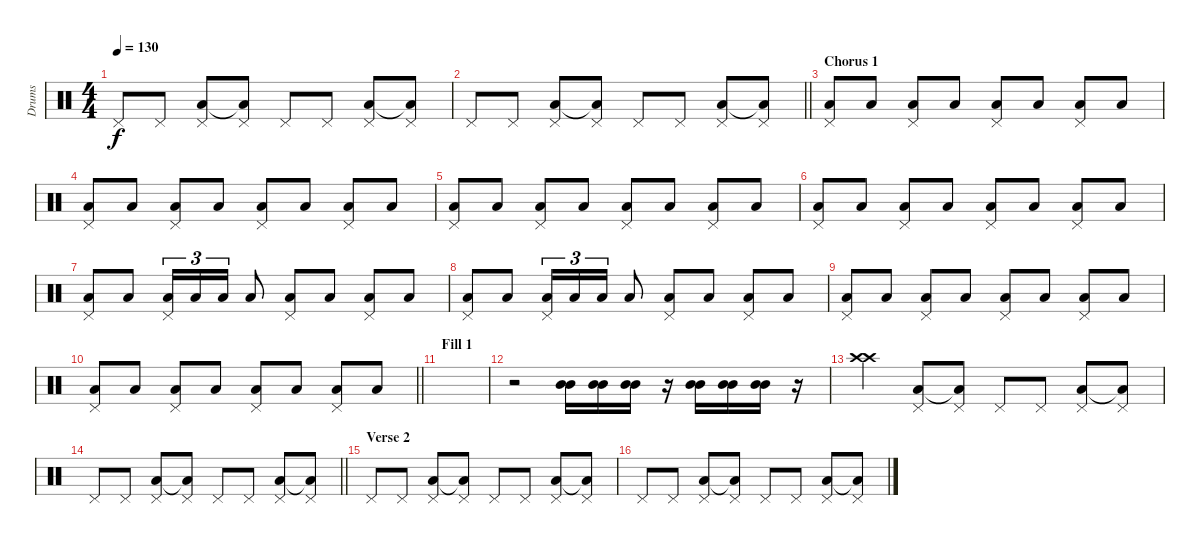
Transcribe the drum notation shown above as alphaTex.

\track ("Drums" "Drums") {instrument percussion}
\staff {score}
\articulation defaults
\ts (4 4)
\tempo 130
\clef neutral
\ks c "Pedal Hi-Hat (hit)".8{dy f} "Pedal Hi-Hat (hit)".8
("Pedal Hi-Hat (hit)" "Low Floor Tom (hit)").8 ("Pedal Hi-Hat (hit)" "Low Floor Tom (hit)"{t}).8 "Pedal Hi-Hat (hit)".8 "Pedal Hi-Hat (hit)".8 ("Pedal Hi-Hat (hit)" "Low Floor Tom (hit)").8 ("Pedal Hi-Hat (hit)" "Low Floor Tom (hit)"{t}).8 |
\barLineRight lightlight "Pedal Hi-Hat (hit)".8 "Pedal Hi-Hat (hit)".8
("Pedal Hi-Hat (hit)" "Low Floor Tom (hit)").8 ("Pedal Hi-Hat (hit)" "Low Floor Tom (hit)"{t}).8 "Pedal Hi-Hat (hit)".8 "Pedal Hi-Hat (hit)".8 ("Pedal Hi-Hat (hit)" "Low Floor Tom (hit)").8 ("Pedal Hi-Hat (hit)" "Low Floor Tom (hit)"{t}).8 |
\section ("" "Chorus 1")
("Pedal Hi-Hat (hit)" "Low Floor Tom (hit)").8 "Low Floor Tom (hit)".8 ("Pedal Hi-Hat (hit)" "Low Floor Tom (hit)").8 "Low Floor Tom (hit)".8 ("Pedal Hi-Hat (hit)" "Low Floor Tom (hit)").8 "Low Floor Tom (hit)".8 ("Pedal Hi-Hat (hit)" "Low Floor Tom (hit)").8 "Low Floor Tom (hit)".8 |
("Pedal Hi-Hat (hit)" "Low Floor Tom (hit)").8 "Low Floor Tom (hit)".8 ("Pedal Hi-Hat (hit)" "Low Floor Tom (hit)").8 "Low Floor Tom (hit)".8 ("Pedal Hi-Hat (hit)" "Low Floor Tom (hit)").8 "Low Floor Tom (hit)".8 ("Pedal Hi-Hat (hit)" "Low Floor Tom (hit)").8 "Low Floor Tom (hit)".8 |
("Pedal Hi-Hat (hit)" "Low Floor Tom (hit)").8 "Low Floor Tom (hit)".8 ("Pedal Hi-Hat (hit)" "Low Floor Tom (hit)").8 "Low Floor Tom (hit)".8 ("Pedal Hi-Hat (hit)" "Low Floor Tom (hit)").8 "Low Floor Tom (hit)".8 ("Pedal Hi-Hat (hit)" "Low Floor Tom (hit)").8 "Low Floor Tom (hit)".8 |
("Pedal Hi-Hat (hit)" "Low Floor Tom (hit)").8 "Low Floor Tom (hit)".8 ("Pedal Hi-Hat (hit)" "Low Floor Tom (hit)").8 "Low Floor Tom (hit)".8 ("Pedal Hi-Hat (hit)" "Low Floor Tom (hit)").8 "Low Floor Tom (hit)".8 ("Pedal Hi-Hat (hit)" "Low Floor Tom (hit)").8 "Low Floor Tom (hit)".8 |
("Pedal Hi-Hat (hit)" "Low Floor Tom (hit)").8 "Low Floor Tom (hit)".8 ("Pedal Hi-Hat (hit)" "Low Floor Tom (hit)").16{tu (3 2)} "Low Floor Tom (hit)".16{tu (3 2)} "Low Floor Tom (hit)".16{tu (3 2)} "Low Floor Tom (hit)".8 ("Pedal Hi-Hat (hit)" "Low Floor Tom (hit)").8 "Low Floor Tom (hit)".8 ("Pedal Hi-Hat (hit)" "Low Floor Tom (hit)").8 "Low Floor Tom (hit)".8 |
("Pedal Hi-Hat (hit)" "Low Floor Tom (hit)").8 "Low Floor Tom (hit)".8 ("Pedal Hi-Hat (hit)" "Low Floor Tom (hit)").16{tu (3 2)} "Low Floor Tom (hit)".16{tu (3 2)} "Low Floor Tom (hit)".16{tu (3 2)} "Low Floor Tom (hit)".8 ("Pedal Hi-Hat (hit)" "Low Floor Tom (hit)").8 "Low Floor Tom (hit)".8 ("Pedal Hi-Hat (hit)" "Low Floor Tom (hit)").8 "Low Floor Tom (hit)".8 |
("Pedal Hi-Hat (hit)" "Low Floor Tom (hit)").8 "Low Floor Tom (hit)".8 ("Pedal Hi-Hat (hit)" "Low Floor Tom (hit)").8 "Low Floor Tom (hit)".8 ("Pedal Hi-Hat (hit)" "Low Floor Tom (hit)").8 "Low Floor Tom (hit)".8 ("Pedal Hi-Hat (hit)" "Low Floor Tom (hit)").8 "Low Floor Tom (hit)".8 |
\barLineRight lightlight
("Pedal Hi-Hat (hit)" "Low Floor Tom (hit)").8 "Low Floor Tom (hit)".8 ("Pedal Hi-Hat (hit)" "Low Floor Tom (hit)").8 "Low Floor Tom (hit)".8 ("Pedal Hi-Hat (hit)" "Low Floor Tom (hit)").8 "Low Floor Tom (hit)".8 ("Pedal Hi-Hat (hit)" "Low Floor Tom (hit)").8 "Low Floor Tom (hit)".8 |
\section ("" "Fill 1")
|
r.2 ("Mid Tom (hit)" "Mid Tom (hit)").16 ("Mid Tom (hit)" "Mid Tom (hit)").16 ("Mid Tom (hit)" "Mid Tom (hit)").16 r.16 ("Mid Tom (hit)" "Mid Tom (hit)").16 ("Mid Tom (hit)" "Mid Tom (hit)").16 ("Mid Tom (hit)" "Mid Tom (hit)").16 r.16 |
("Crash high (hit)" "Crash high (hit)").4 ("Pedal Hi-Hat (hit)" "Low Floor Tom (hit)").8 ("Pedal Hi-Hat (hit)" "Low Floor Tom (hit)"{t}).8 "Pedal Hi-Hat (hit)".8 "Pedal Hi-Hat (hit)".8 ("Pedal Hi-Hat (hit)" "Low Floor Tom (hit)").8 ("Pedal Hi-Hat (hit)" "Low Floor Tom (hit)"{t}).8 |
\barLineRight lightlight "Pedal Hi-Hat (hit)".8 "Pedal Hi-Hat (hit)".8
("Pedal Hi-Hat (hit)" "Low Floor Tom (hit)").8 ("Pedal Hi-Hat (hit)" "Low Floor Tom (hit)"{t}).8 "Pedal Hi-Hat (hit)".8 "Pedal Hi-Hat (hit)".8 ("Pedal Hi-Hat (hit)" "Low Floor Tom (hit)").8 ("Pedal Hi-Hat (hit)" "Low Floor Tom (hit)"{t}).8 |
\section ("" "Verse 2")
"Pedal Hi-Hat (hit)".8 "Pedal Hi-Hat (hit)".8 ("Pedal Hi-Hat (hit)" "Low Floor Tom (hit)").8 ("Pedal Hi-Hat (hit)" "Low Floor Tom (hit)"{t}).8 "Pedal Hi-Hat (hit)".8 "Pedal Hi-Hat (hit)".8 ("Pedal Hi-Hat (hit)" "Low Floor Tom (hit)").8 ("Pedal Hi-Hat (hit)" "Low Floor Tom (hit)"{t}).8 |
"Pedal Hi-Hat (hit)".8 "Pedal Hi-Hat (hit)".8 ("Pedal Hi-Hat (hit)" "Low Floor Tom (hit)").8 ("Pedal Hi-Hat (hit)" "Low Floor Tom (hit)"{t}).8 "Pedal Hi-Hat (hit)".8 "Pedal Hi-Hat (hit)".8 ("Pedal Hi-Hat (hit)" "Low Floor Tom (hit)").8 ("Pedal Hi-Hat (hit)" "Low Floor Tom (hit)"{t}).8
